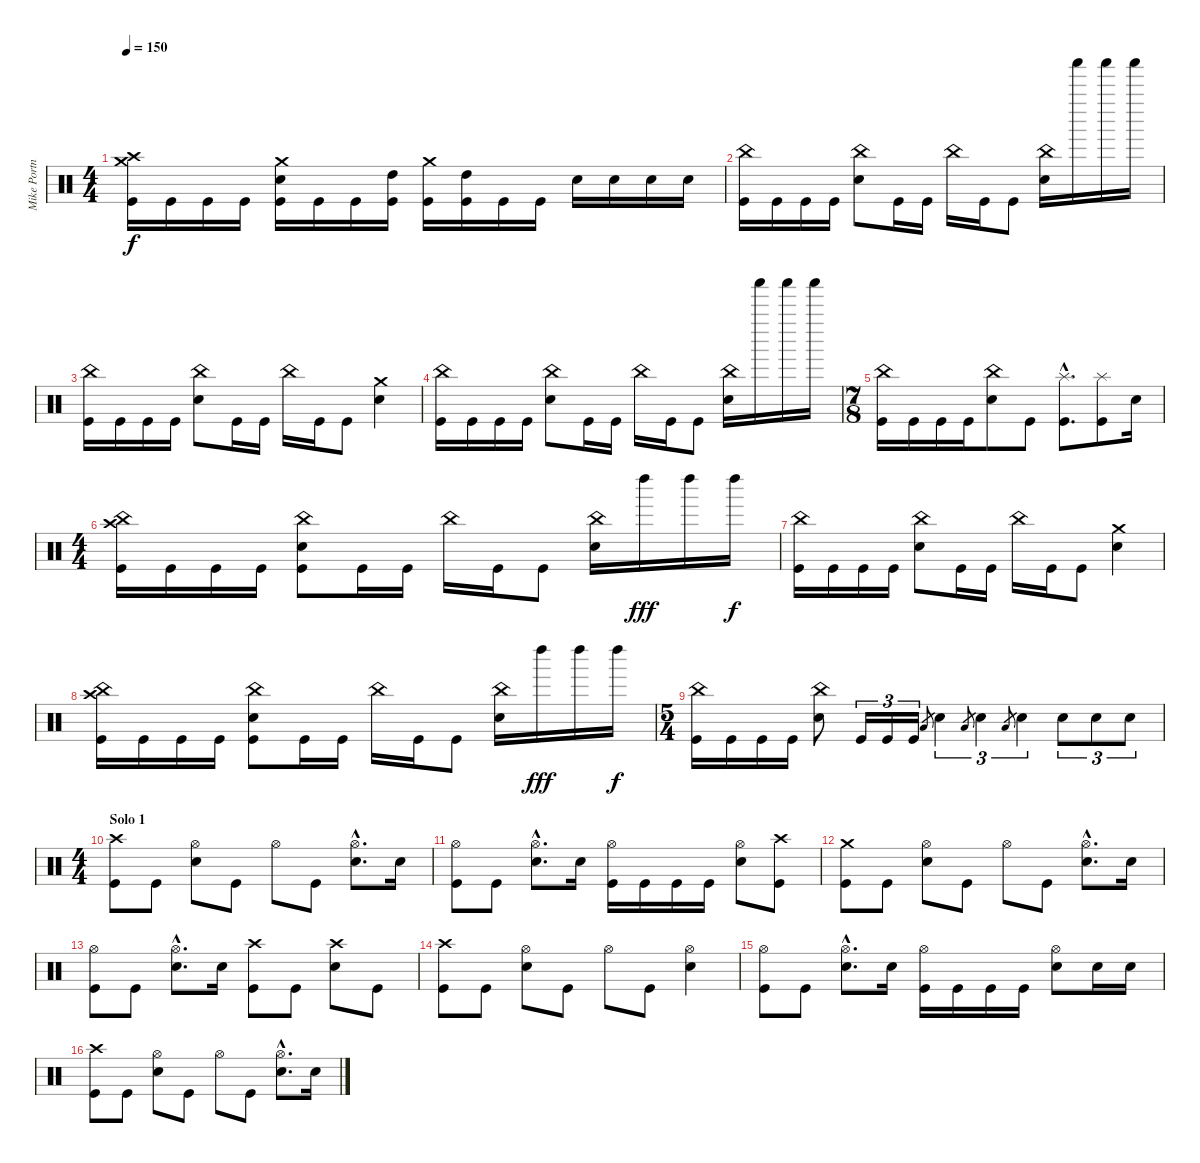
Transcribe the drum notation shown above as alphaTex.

\track ("Mike Portnoy" "Mike Portn") {instrument percussion}
\staff {score}
\articulation defaults
\ts (4 4)
\tempo 150
\clef neutral
\ks c
("Crash high (hit)" "Crash medium (hit)" "Kick (hit)").16{dy f} "Kick (hit)".16 "Kick (hit)".16 "Kick (hit)".16 ("Crash medium (hit)" "Electric Snare (hit)" "Kick (hit)").16 "Kick (hit)".16 "Kick (hit)".16 ("High Tom (hit)" "Kick (hit)").16 ("Crash medium (hit)" "Kick (hit)").16 ("High Tom (hit)" "Kick (hit)").16 "Kick (hit)".16 "Kick (hit)".16 "Electric Snare (hit)".16 "Electric Snare (hit)".16 "Electric Snare (hit)".16 "Electric Snare (hit)".16 |
("China (hit)" "Kick (hit)").16 "Kick (hit)".16 "Kick (hit)".16 "Kick (hit)".16 ("China (hit)" "Electric Snare (hit)").8 "Kick (hit)".16 "Kick (hit)".16 "China (hit)".16 "Kick (hit)".16 "Kick (hit)".8 ("China (hit)" "Electric Snare (hit)").16 "Shaker (hit)".16 "Shaker (hit)".16 "Shaker (hit)".16 |
("China (hit)" "Kick (hit)").16 "Kick (hit)".16 "Kick (hit)".16 "Kick (hit)".16 ("China (hit)" "Electric Snare (hit)").8 "Kick (hit)".16 "Kick (hit)".16 "China (hit)".16 "Kick (hit)".16 "Kick (hit)".8 ("Crash medium (hit)" "Electric Snare (hit)").4 |
("China (hit)" "Kick (hit)").16 "Kick (hit)".16 "Kick (hit)".16 "Kick (hit)".16 ("China (hit)" "Electric Snare (hit)").8 "Kick (hit)".16 "Kick (hit)".16 "China (hit)".16 "Kick (hit)".16 "Kick (hit)".8 ("China (hit)" "Electric Snare (hit)").16 "Shaker (hit)".16 "Shaker (hit)".16 "Shaker (hit)".16 |
\ts (7 8)
("China (hit)" "Kick (hit)").16 "Kick (hit)".16 "Kick (hit)".16 "Kick (hit)".16 ("China (hit)" "Electric Snare (hit)").8 "Kick (hit)".8 ("Splash (hit)"{hac} "Kick (hit)"{hac}).8{d} ("Splash (hit)" "Kick (hit)").8 "Electric Snare (hit)".16 |
\ts (4 4)
("Crash high (hit)" "China (hit)" "Kick (hit)").16 "Kick (hit)".16 "Kick (hit)".16 "Kick (hit)".16 ("China (hit)" "Electric Snare (hit)" "Kick (hit)").8 "Kick (hit)".16 "Kick (hit)".16 "China (hit)".16 "Kick (hit)".16 "Kick (hit)".8 ("China (hit)" "Electric Snare (hit)").16 "Left Maraca (hit)".16{dy fff} "Left Maraca (hit)".16 "Left Maraca (hit)".16{dy f} |
("China (hit)" "Kick (hit)").16 "Kick (hit)".16 "Kick (hit)".16 "Kick (hit)".16 ("China (hit)" "Electric Snare (hit)").8 "Kick (hit)".16 "Kick (hit)".16 "China (hit)".16 "Kick (hit)".16 "Kick (hit)".8 ("Crash medium (hit)" "Electric Snare (hit)").4 |
("Crash high (hit)" "China (hit)" "Kick (hit)").16 "Kick (hit)".16 "Kick (hit)".16 "Kick (hit)".16 ("China (hit)" "Electric Snare (hit)" "Kick (hit)").8 "Kick (hit)".16 "Kick (hit)".16 "China (hit)".16 "Kick (hit)".16 "Kick (hit)".8 ("China (hit)" "Electric Snare (hit)").16 "Left Maraca (hit)".16{dy fff} "Left Maraca (hit)".16 "Left Maraca (hit)".16{dy f} |
\ts (5 4)
("China (hit)" "Kick (hit)").16 "Kick (hit)".16 "Kick (hit)".16 "Kick (hit)".16 ("China (hit)" "Electric Snare (hit)").8 "Kick (hit)".16{tu (3 2)} "Kick (hit)".16{tu (3 2)} "Kick (hit)".16{tu (3 2)} "Low Tom (hit)".8{gr} "Electric Snare (hit)".4{tu (3 2)} "Low Tom (hit)".8{gr} "Electric Snare (hit)".4{tu (3 2)} "Low Tom (hit)".8{gr} "Electric Snare (hit)".4{tu (3 2)} "Electric Snare (hit)".8{tu (3 2)} "Electric Snare (hit)".8{tu (3 2)} "Electric Snare (hit)".8{tu (3 2)} |
\ts (4 4)
\section ("" "Solo 1")
("Crash high (hit)" "Kick (hit)").8 "Kick (hit)".8 ("Hi-Hat (open)" "Electric Snare (hit)").8 "Kick (hit)".8 "Hi-Hat (open)".8 "Kick (hit)".8 ("Hi-Hat (open)"{hac} "Electric Snare (hit)"{hac}).8{d} "Electric Snare (hit)".16 |
("Hi-Hat (open)" "Kick (hit)").8 "Kick (hit)".8 ("Hi-Hat (open)"{hac} "Electric Snare (hit)"{hac}).8{d} "Electric Snare (hit)".16 ("Hi-Hat (open)" "Kick (hit)").16 "Kick (hit)".16 "Kick (hit)".16 "Kick (hit)".16 ("Hi-Hat (open)" "Electric Snare (hit)").8 ("Crash high (hit)" "Kick (hit)").8 |
("Crash medium (hit)" "Kick (hit)").8 "Kick (hit)".8 ("Hi-Hat (open)" "Electric Snare (hit)").8 "Kick (hit)".8 "Hi-Hat (open)".8 "Kick (hit)".8 ("Hi-Hat (open)"{hac} "Electric Snare (hit)"{hac}).8{d} "Electric Snare (hit)".16 |
("Hi-Hat (open)" "Kick (hit)").8 "Kick (hit)".8 ("Hi-Hat (open)"{hac} "Electric Snare (hit)"{hac}).8{d} "Electric Snare (hit)".16 ("Crash high (hit)" "Kick (hit)").8 "Kick (hit)".8 ("Crash high (hit)" "Electric Snare (hit)").8 "Kick (hit)".8 |
("Crash high (hit)" "Kick (hit)").8 "Kick (hit)".8 ("Hi-Hat (open)" "Electric Snare (hit)").8 "Kick (hit)".8 "Hi-Hat (open)".8 "Kick (hit)".8 ("Hi-Hat (open)" "Electric Snare (hit)").4 |
("Hi-Hat (open)" "Kick (hit)").8 "Kick (hit)".8 ("Hi-Hat (open)"{hac} "Electric Snare (hit)"{hac}).8{d} "Electric Snare (hit)".16 ("Hi-Hat (open)" "Kick (hit)").16 "Kick (hit)".16 "Kick (hit)".16 "Kick (hit)".16 ("Hi-Hat (open)" "Electric Snare (hit)").8 "Electric Snare (hit)".16 "Electric Snare (hit)".16 |
("Crash high (hit)" "Kick (hit)").8 "Kick (hit)".8 ("Hi-Hat (open)" "Electric Snare (hit)").8 "Kick (hit)".8 "Hi-Hat (open)".8 "Kick (hit)".8 ("Hi-Hat (open)"{hac} "Electric Snare (hit)"{hac}).8{d} "Electric Snare (hit)".16
